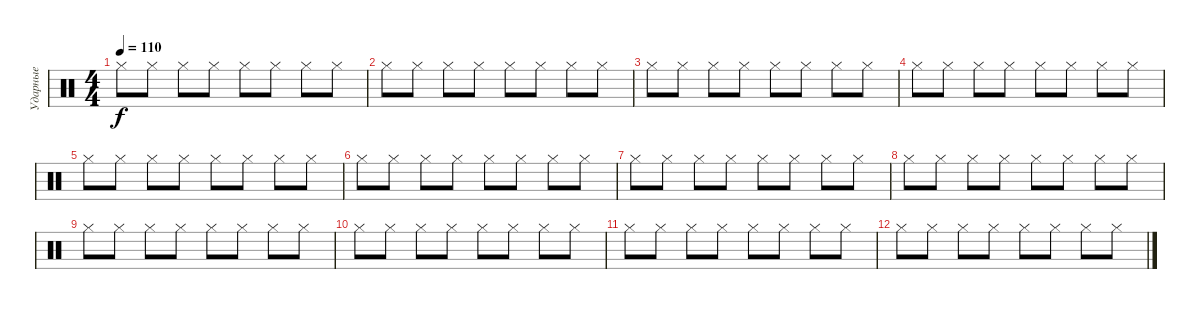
\track ("Ударные" "Ударные") {instrument percussion}
\staff {score}
\articulation defaults
\ts (4 4)
\tempo 110
\clef neutral
\ks c "Hi-Hat (closed)".8{dy f} "Hi-Hat (closed)".8 "Hi-Hat (closed)".8 "Hi-Hat (closed)".8 "Hi-Hat (closed)".8 "Hi-Hat (closed)".8 "Hi-Hat (closed)".8 "Hi-Hat (closed)".8
|
"Hi-Hat (closed)".8 "Hi-Hat (closed)".8 "Hi-Hat (closed)".8 "Hi-Hat (closed)".8 "Hi-Hat (closed)".8 "Hi-Hat (closed)".8 "Hi-Hat (closed)".8 "Hi-Hat (closed)".8 |
"Hi-Hat (closed)".8 "Hi-Hat (closed)".8 "Hi-Hat (closed)".8 "Hi-Hat (closed)".8 "Hi-Hat (closed)".8 "Hi-Hat (closed)".8 "Hi-Hat (closed)".8 "Hi-Hat (closed)".8 |
"Hi-Hat (closed)".8 "Hi-Hat (closed)".8 "Hi-Hat (closed)".8 "Hi-Hat (closed)".8 "Hi-Hat (closed)".8 "Hi-Hat (closed)".8 "Hi-Hat (closed)".8 "Hi-Hat (closed)".8 |
"Hi-Hat (closed)".8 "Hi-Hat (closed)".8 "Hi-Hat (closed)".8 "Hi-Hat (closed)".8 "Hi-Hat (closed)".8 "Hi-Hat (closed)".8 "Hi-Hat (closed)".8 "Hi-Hat (closed)".8 |
"Hi-Hat (closed)".8 "Hi-Hat (closed)".8 "Hi-Hat (closed)".8 "Hi-Hat (closed)".8 "Hi-Hat (closed)".8 "Hi-Hat (closed)".8 "Hi-Hat (closed)".8 "Hi-Hat (closed)".8 |
"Hi-Hat (closed)".8 "Hi-Hat (closed)".8 "Hi-Hat (closed)".8 "Hi-Hat (closed)".8 "Hi-Hat (closed)".8 "Hi-Hat (closed)".8 "Hi-Hat (closed)".8 "Hi-Hat (closed)".8 |
"Hi-Hat (closed)".8 "Hi-Hat (closed)".8 "Hi-Hat (closed)".8 "Hi-Hat (closed)".8 "Hi-Hat (closed)".8 "Hi-Hat (closed)".8 "Hi-Hat (closed)".8 "Hi-Hat (closed)".8 |
"Hi-Hat (closed)".8 "Hi-Hat (closed)".8 "Hi-Hat (closed)".8 "Hi-Hat (closed)".8 "Hi-Hat (closed)".8 "Hi-Hat (closed)".8 "Hi-Hat (closed)".8 "Hi-Hat (closed)".8 |
"Hi-Hat (closed)".8 "Hi-Hat (closed)".8 "Hi-Hat (closed)".8 "Hi-Hat (closed)".8 "Hi-Hat (closed)".8 "Hi-Hat (closed)".8 "Hi-Hat (closed)".8 "Hi-Hat (closed)".8 |
"Hi-Hat (closed)".8 "Hi-Hat (closed)".8 "Hi-Hat (closed)".8 "Hi-Hat (closed)".8 "Hi-Hat (closed)".8 "Hi-Hat (closed)".8 "Hi-Hat (closed)".8 "Hi-Hat (closed)".8 |
"Hi-Hat (closed)".8 "Hi-Hat (closed)".8 "Hi-Hat (closed)".8 "Hi-Hat (closed)".8 "Hi-Hat (closed)".8 "Hi-Hat (closed)".8 "Hi-Hat (closed)".8 "Hi-Hat (closed)".8
